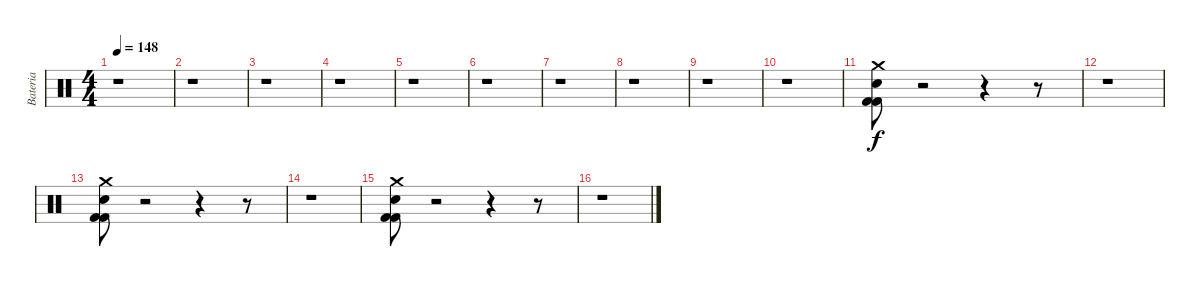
\track ("Bateria" "Bateria") {instrument percussion}
\staff {score}
\articulation defaults
\ts (4 4)
\tempo 148
\clef neutral
\ks c
r.1{dy f} |
r.1 |
r.1 |
r.1 |
r.1 |
r.1 |
r.1 |
r.1 |
r.1 |
r.1 |
("Kick (hit) 2" "Kick (hit) 2" "Snare (hit) 2" "Crash medium (hit)").8 r.2 r.4 r.8 |
r.1 |
("Kick (hit) 2" "Kick (hit) 2" "Snare (hit) 2" "Crash medium (hit)").8 r.2 r.4 r.8 |
r.1 |
("Kick (hit) 2" "Kick (hit) 2" "Snare (hit) 2" "Crash medium (hit)").8 r.2 r.4 r.8 |
r.1
